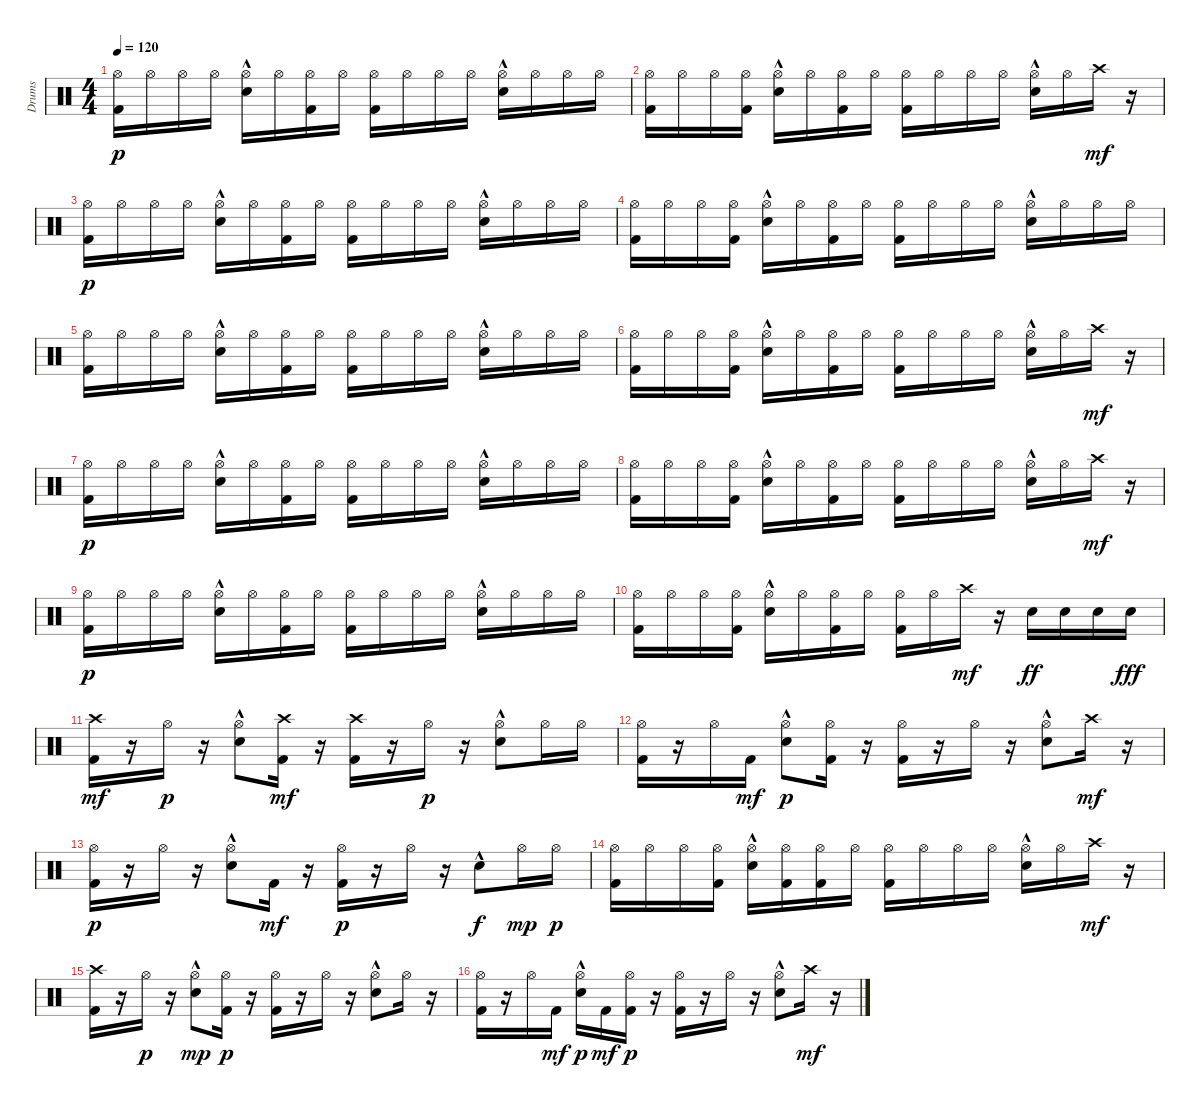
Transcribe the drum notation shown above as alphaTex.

\track ("Drums" "Drums") {instrument percussion}
\staff {score}
\articulation defaults
\ts (4 4)
\tempo 120
\clef neutral
\ks c
("Kick (hit) 2" "Hi-Hat (open)").16{dy p} "Hi-Hat (open)".16 "Hi-Hat (open)".16 "Hi-Hat (open)".16 ("Electric Snare (hit)"{hac} "Hi-Hat (open)").16 "Hi-Hat (open)".16 ("Kick (hit) 2" "Hi-Hat (open)").16 "Hi-Hat (open)".16 ("Kick (hit) 2" "Hi-Hat (open)").16 "Hi-Hat (open)".16 "Hi-Hat (open)".16 "Hi-Hat (open)".16 ("Electric Snare (hit)"{hac} "Hi-Hat (open)").16 "Hi-Hat (open)".16 "Hi-Hat (open)".16 "Hi-Hat (open)".16 |
("Kick (hit) 2" "Hi-Hat (open)").16 "Hi-Hat (open)".16 "Hi-Hat (open)".16 ("Kick (hit) 2" "Hi-Hat (open)").16 ("Electric Snare (hit)"{hac} "Hi-Hat (open)").16 "Hi-Hat (open)".16 ("Kick (hit) 2" "Hi-Hat (open)").16 "Hi-Hat (open)".16 ("Kick (hit) 2" "Hi-Hat (open)").16 "Hi-Hat (open)".16 "Hi-Hat (open)".16 "Hi-Hat (open)".16 ("Electric Snare (hit)"{hac} "Hi-Hat (open)").16 "Hi-Hat (open)".16 "Crash high (hit)".16{dy mf} r.16 |
("Kick (hit) 2" "Hi-Hat (open)").16{dy p} "Hi-Hat (open)".16 "Hi-Hat (open)".16 "Hi-Hat (open)".16 ("Electric Snare (hit)"{hac} "Hi-Hat (open)").16 "Hi-Hat (open)".16 ("Kick (hit) 2" "Hi-Hat (open)").16 "Hi-Hat (open)".16 ("Kick (hit) 2" "Hi-Hat (open)").16 "Hi-Hat (open)".16 "Hi-Hat (open)".16 "Hi-Hat (open)".16 ("Electric Snare (hit)"{hac} "Hi-Hat (open)").16 "Hi-Hat (open)".16 "Hi-Hat (open)".16 "Hi-Hat (open)".16 |
("Kick (hit) 2" "Hi-Hat (open)").16 "Hi-Hat (open)".16 "Hi-Hat (open)".16 ("Kick (hit) 2" "Hi-Hat (open)").16 ("Electric Snare (hit)"{hac} "Hi-Hat (open)").16 "Hi-Hat (open)".16 ("Kick (hit) 2" "Hi-Hat (open)").16 "Hi-Hat (open)".16 ("Kick (hit) 2" "Hi-Hat (open)").16 "Hi-Hat (open)".16 "Hi-Hat (open)".16 "Hi-Hat (open)".16 ("Electric Snare (hit)"{hac} "Hi-Hat (open)").16 "Hi-Hat (open)".16 "Hi-Hat (open)".16 "Hi-Hat (open)".16 |
("Kick (hit) 2" "Hi-Hat (open)").16 "Hi-Hat (open)".16 "Hi-Hat (open)".16 "Hi-Hat (open)".16 ("Electric Snare (hit)"{hac} "Hi-Hat (open)").16 "Hi-Hat (open)".16 ("Kick (hit) 2" "Hi-Hat (open)").16 "Hi-Hat (open)".16 ("Kick (hit) 2" "Hi-Hat (open)").16 "Hi-Hat (open)".16 "Hi-Hat (open)".16 "Hi-Hat (open)".16 ("Electric Snare (hit)"{hac} "Hi-Hat (open)").16 "Hi-Hat (open)".16 "Hi-Hat (open)".16 "Hi-Hat (open)".16 |
("Kick (hit) 2" "Hi-Hat (open)").16 "Hi-Hat (open)".16 "Hi-Hat (open)".16 ("Kick (hit) 2" "Hi-Hat (open)").16 ("Electric Snare (hit)"{hac} "Hi-Hat (open)").16 "Hi-Hat (open)".16 ("Kick (hit) 2" "Hi-Hat (open)").16 "Hi-Hat (open)".16 ("Kick (hit) 2" "Hi-Hat (open)").16 "Hi-Hat (open)".16 "Hi-Hat (open)".16 "Hi-Hat (open)".16 ("Electric Snare (hit)"{hac} "Hi-Hat (open)").16 "Hi-Hat (open)".16 "Crash high (hit)".16{dy mf} r.16 |
("Kick (hit) 2" "Hi-Hat (open)").16{dy p} "Hi-Hat (open)".16 "Hi-Hat (open)".16 "Hi-Hat (open)".16 ("Electric Snare (hit)"{hac} "Hi-Hat (open)").16 "Hi-Hat (open)".16 ("Kick (hit) 2" "Hi-Hat (open)").16 "Hi-Hat (open)".16 ("Kick (hit) 2" "Hi-Hat (open)").16 "Hi-Hat (open)".16 "Hi-Hat (open)".16 "Hi-Hat (open)".16 ("Electric Snare (hit)"{hac} "Hi-Hat (open)").16 "Hi-Hat (open)".16 "Hi-Hat (open)".16 "Hi-Hat (open)".16 |
("Kick (hit) 2" "Hi-Hat (open)").16 "Hi-Hat (open)".16 "Hi-Hat (open)".16 ("Kick (hit) 2" "Hi-Hat (open)").16 ("Electric Snare (hit)"{hac} "Hi-Hat (open)").16 "Hi-Hat (open)".16 ("Kick (hit) 2" "Hi-Hat (open)").16 "Hi-Hat (open)".16 ("Kick (hit) 2" "Hi-Hat (open)").16 "Hi-Hat (open)".16 "Hi-Hat (open)".16 "Hi-Hat (open)".16 ("Electric Snare (hit)"{hac} "Hi-Hat (open)").16 "Hi-Hat (open)".16 "Crash high (hit)".16{dy mf} r.16 |
("Kick (hit) 2" "Hi-Hat (open)").16{dy p} "Hi-Hat (open)".16 "Hi-Hat (open)".16 "Hi-Hat (open)".16 ("Electric Snare (hit)"{hac} "Hi-Hat (open)").16 "Hi-Hat (open)".16 ("Kick (hit) 2" "Hi-Hat (open)").16 "Hi-Hat (open)".16 ("Kick (hit) 2" "Hi-Hat (open)").16 "Hi-Hat (open)".16 "Hi-Hat (open)".16 "Hi-Hat (open)".16 ("Electric Snare (hit)"{hac} "Hi-Hat (open)").16 "Hi-Hat (open)".16 "Hi-Hat (open)".16 "Hi-Hat (open)".16 |
("Kick (hit) 2" "Hi-Hat (open)").16 "Hi-Hat (open)".16 "Hi-Hat (open)".16 ("Kick (hit) 2" "Hi-Hat (open)").16 ("Electric Snare (hit)"{hac} "Hi-Hat (open)").16 "Hi-Hat (open)".16 ("Kick (hit) 2" "Hi-Hat (open)").16 "Hi-Hat (open)".16 ("Kick (hit) 2" "Hi-Hat (open)").16 "Hi-Hat (open)".16 "Crash high (hit)".16{dy mf} r.16 "Electric Snare (hit)".16{dy ff} "Electric Snare (hit)".16 "Electric Snare (hit)".16 "Electric Snare (hit)".16{dy fff} |
("Kick (hit) 2" "Crash high (hit)").16{dy mf} r.16 "Hi-Hat (open)".16{dy p} r.16 ("Electric Snare (hit)"{hac} "Hi-Hat (open)").8 ("Kick (hit) 2" "Crash high (hit)").16{dy mf} r.16 ("Kick (hit) 2" "Crash high (hit)").16 r.16 "Hi-Hat (open)".16{dy p} r.16 ("Electric Snare (hit)"{hac} "Hi-Hat (open)").8 "Hi-Hat (open)".16 "Hi-Hat (open)".16 |
("Kick (hit) 2" "Hi-Hat (open)").16 r.16 "Hi-Hat (open)".16 "Kick (hit) 2".16{dy mf} ("Electric Snare (hit)"{hac} "Hi-Hat (open)").8{dy p} ("Kick (hit) 2" "Hi-Hat (open)").16 r.16 ("Kick (hit) 2" "Hi-Hat (open)").16 r.16 "Hi-Hat (open)".16 r.16 ("Electric Snare (hit)"{hac} "Hi-Hat (open)").8 "Crash high (hit)".16{dy mf} r.16 |
("Kick (hit) 2" "Hi-Hat (open)").16{dy p} r.16 "Hi-Hat (open)".16 r.16 ("Electric Snare (hit)"{hac} "Hi-Hat (open)").8 "Kick (hit) 2".16{dy mf} r.16 ("Kick (hit) 2" "Hi-Hat (open)").16{dy p} r.16 "Hi-Hat (open)".16 r.16 "Electric Snare (hit)"{hac}.8{dy f} "Hi-Hat (open)".16{dy mp} "Hi-Hat (open)".16{dy p} |
("Kick (hit) 2" "Hi-Hat (open)").16 "Hi-Hat (open)".16 "Hi-Hat (open)".16 ("Kick (hit) 2" "Hi-Hat (open)").16 ("Electric Snare (hit)"{hac} "Hi-Hat (open)").16 ("Kick (hit) 2" "Hi-Hat (open)").16 ("Kick (hit) 2" "Hi-Hat (open)").16 "Hi-Hat (open)".16 ("Kick (hit) 2" "Hi-Hat (open)").16 "Hi-Hat (open)".16 "Hi-Hat (open)".16 "Hi-Hat (open)".16 ("Electric Snare (hit)"{hac} "Hi-Hat (open)").16 "Hi-Hat (open)".16 "Crash high (hit)".16{dy mf} r.16 |
("Kick (hit) 2" "Crash high (hit)").16 r.16 "Hi-Hat (open)".16{dy p} r.16 ("Electric Snare (hit)"{hac} "Hi-Hat (open)").8{dy mp} ("Kick (hit) 2" "Hi-Hat (open)").16{dy p} r.16 ("Kick (hit) 2" "Hi-Hat (open)").16 r.16 "Hi-Hat (open)".16 r.16 ("Electric Snare (hit)"{hac} "Hi-Hat (open)").8 "Hi-Hat (open)".16 r.16 |
("Kick (hit) 2" "Hi-Hat (open)").16 r.16 "Hi-Hat (open)".16 "Kick (hit) 2".16{dy mf} ("Electric Snare (hit)"{hac} "Hi-Hat (open)").16{dy p} "Kick (hit) 2".16{dy mf} ("Kick (hit) 2" "Hi-Hat (open)").16{dy p} r.16 ("Kick (hit) 2" "Hi-Hat (open)").16 r.16 "Hi-Hat (open)".16 r.16 ("Electric Snare (hit)"{hac} "Hi-Hat (open)").8 "Crash high (hit)".16{dy mf} r.16
